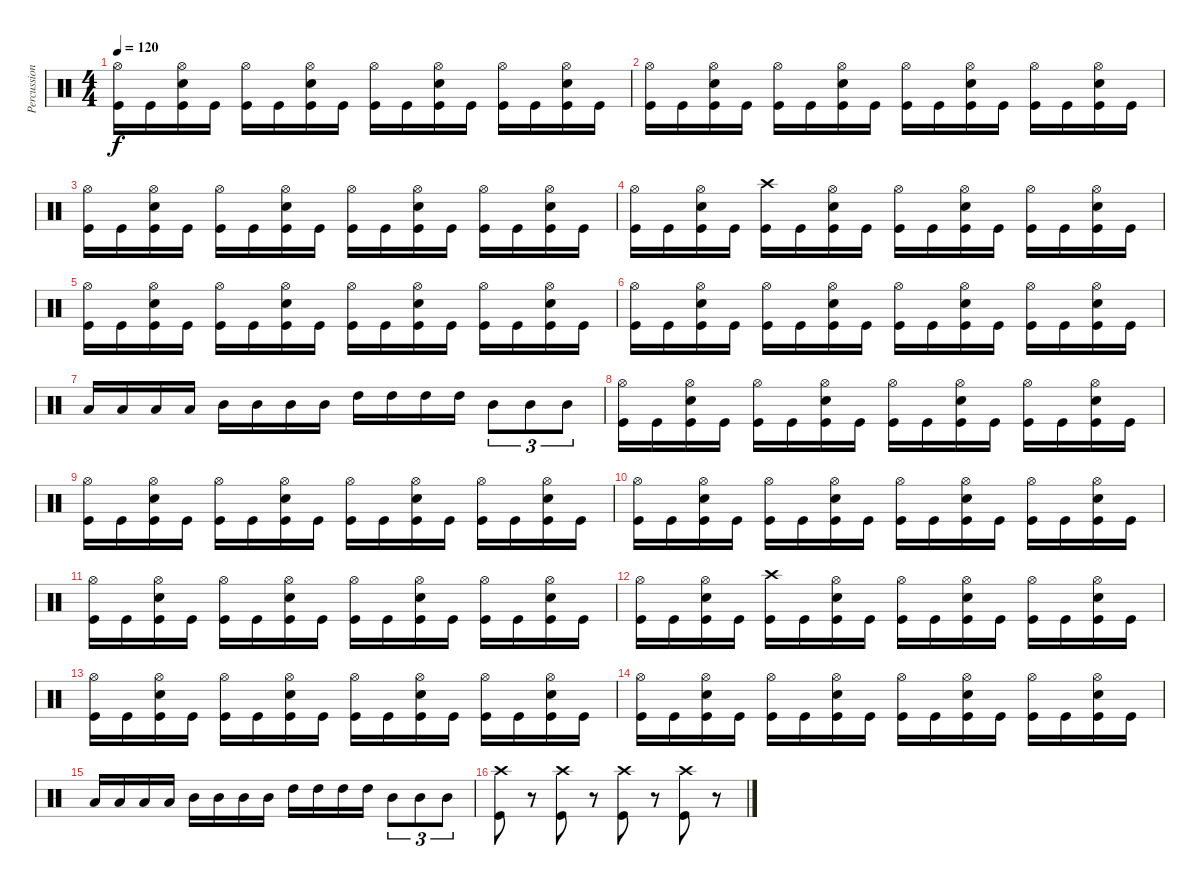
\track ("Percussioni" "Percussion") {instrument percussion}
\staff {score}
\articulation defaults
\ts (4 4)
\tempo 120
\clef neutral
\ks c
("Hi-Hat (open)" "Kick (hit)").16{dy f} "Kick (hit)".16 ("Hi-Hat (open)" "Electric Snare (hit)" "Kick (hit)").16 "Kick (hit)".16 ("Hi-Hat (open)" "Kick (hit)").16 "Kick (hit)".16 ("Hi-Hat (open)" "Electric Snare (hit)" "Kick (hit)").16 "Kick (hit)".16 ("Hi-Hat (open)" "Kick (hit)").16 "Kick (hit)".16 ("Hi-Hat (open)" "Electric Snare (hit)" "Kick (hit)").16 "Kick (hit)".16 ("Hi-Hat (open)" "Kick (hit)").16 "Kick (hit)".16 ("Hi-Hat (open)" "Electric Snare (hit)" "Kick (hit)").16 "Kick (hit)".16 |
("Hi-Hat (open)" "Kick (hit)").16 "Kick (hit)".16 ("Hi-Hat (open)" "Electric Snare (hit)" "Kick (hit)").16 "Kick (hit)".16 ("Hi-Hat (open)" "Kick (hit)").16 "Kick (hit)".16 ("Hi-Hat (open)" "Electric Snare (hit)" "Kick (hit)").16 "Kick (hit)".16 ("Hi-Hat (open)" "Kick (hit)").16 "Kick (hit)".16 ("Hi-Hat (open)" "Electric Snare (hit)" "Kick (hit)").16 "Kick (hit)".16 ("Hi-Hat (open)" "Kick (hit)").16 "Kick (hit)".16 ("Hi-Hat (open)" "Electric Snare (hit)" "Kick (hit)").16 "Kick (hit)".16 |
("Hi-Hat (open)" "Kick (hit)").16 "Kick (hit)".16 ("Hi-Hat (open)" "Electric Snare (hit)" "Kick (hit)").16 "Kick (hit)".16 ("Hi-Hat (open)" "Kick (hit)").16 "Kick (hit)".16 ("Hi-Hat (open)" "Electric Snare (hit)" "Kick (hit)").16 "Kick (hit)".16 ("Hi-Hat (open)" "Kick (hit)").16 "Kick (hit)".16 ("Hi-Hat (open)" "Electric Snare (hit)" "Kick (hit)").16 "Kick (hit)".16 ("Hi-Hat (open)" "Kick (hit)").16 "Kick (hit)".16 ("Hi-Hat (open)" "Electric Snare (hit)" "Kick (hit)").16 "Kick (hit)".16 |
("Hi-Hat (open)" "Kick (hit)").16 "Kick (hit)".16 ("Hi-Hat (open)" "Electric Snare (hit)" "Kick (hit)").16 "Kick (hit)".16 ("Crash high (hit)" "Kick (hit)").16 "Kick (hit)".16 ("Hi-Hat (open)" "Electric Snare (hit)" "Kick (hit)").16 "Kick (hit)".16 ("Hi-Hat (open)" "Kick (hit)").16 "Kick (hit)".16 ("Hi-Hat (open)" "Electric Snare (hit)" "Kick (hit)").16 "Kick (hit)".16 ("Hi-Hat (open)" "Kick (hit)").16 "Kick (hit)".16 ("Hi-Hat (open)" "Electric Snare (hit)" "Kick (hit)").16 "Kick (hit)".16 |
("Hi-Hat (open)" "Kick (hit)").16 "Kick (hit)".16 ("Hi-Hat (open)" "Electric Snare (hit)" "Kick (hit)").16 "Kick (hit)".16 ("Hi-Hat (open)" "Kick (hit)").16 "Kick (hit)".16 ("Hi-Hat (open)" "Electric Snare (hit)" "Kick (hit)").16 "Kick (hit)".16 ("Hi-Hat (open)" "Kick (hit)").16 "Kick (hit)".16 ("Hi-Hat (open)" "Electric Snare (hit)" "Kick (hit)").16 "Kick (hit)".16 ("Hi-Hat (open)" "Kick (hit)").16 "Kick (hit)".16 ("Hi-Hat (open)" "Electric Snare (hit)" "Kick (hit)").16 "Kick (hit)".16 |
("Hi-Hat (open)" "Kick (hit)").16 "Kick (hit)".16 ("Hi-Hat (open)" "Electric Snare (hit)" "Kick (hit)").16 "Kick (hit)".16 ("Hi-Hat (open)" "Kick (hit)").16 "Kick (hit)".16 ("Hi-Hat (open)" "Electric Snare (hit)" "Kick (hit)").16 "Kick (hit)".16 ("Hi-Hat (open)" "Kick (hit)").16 "Kick (hit)".16 ("Hi-Hat (open)" "Electric Snare (hit)" "Kick (hit)").16 "Kick (hit)".16 ("Hi-Hat (open)" "Kick (hit)").16 "Kick (hit)".16 ("Hi-Hat (open)" "Electric Snare (hit)" "Kick (hit)").16 "Kick (hit)".16 |
"Low Tom (hit)".16 "Low Tom (hit)".16 "Low Tom (hit)".16 "Low Tom (hit)".16 "Mid Tom (hit)".16 "Mid Tom (hit)".16 "Mid Tom (hit)".16 "Mid Tom (hit)".16 "High Tom (hit)".16 "High Tom (hit)".16 "High Tom (hit)".16 "High Tom (hit)".16 "Mid Tom (hit)".8{tu (3 2)} "Mid Tom (hit)".8{tu (3 2)} "Mid Tom (hit)".8{tu (3 2)} |
("Hi-Hat (open)" "Kick (hit)").16 "Kick (hit)".16 ("Hi-Hat (open)" "Electric Snare (hit)" "Kick (hit)").16 "Kick (hit)".16 ("Hi-Hat (open)" "Kick (hit)").16 "Kick (hit)".16 ("Hi-Hat (open)" "Electric Snare (hit)" "Kick (hit)").16 "Kick (hit)".16 ("Hi-Hat (open)" "Kick (hit)").16 "Kick (hit)".16 ("Hi-Hat (open)" "Electric Snare (hit)" "Kick (hit)").16 "Kick (hit)".16 ("Hi-Hat (open)" "Kick (hit)").16 "Kick (hit)".16 ("Hi-Hat (open)" "Electric Snare (hit)" "Kick (hit)").16 "Kick (hit)".16 |
("Hi-Hat (open)" "Kick (hit)").16 "Kick (hit)".16 ("Hi-Hat (open)" "Electric Snare (hit)" "Kick (hit)").16 "Kick (hit)".16 ("Hi-Hat (open)" "Kick (hit)").16 "Kick (hit)".16 ("Hi-Hat (open)" "Electric Snare (hit)" "Kick (hit)").16 "Kick (hit)".16 ("Hi-Hat (open)" "Kick (hit)").16 "Kick (hit)".16 ("Hi-Hat (open)" "Electric Snare (hit)" "Kick (hit)").16 "Kick (hit)".16 ("Hi-Hat (open)" "Kick (hit)").16 "Kick (hit)".16 ("Hi-Hat (open)" "Electric Snare (hit)" "Kick (hit)").16 "Kick (hit)".16 |
("Hi-Hat (open)" "Kick (hit)").16 "Kick (hit)".16 ("Hi-Hat (open)" "Electric Snare (hit)" "Kick (hit)").16 "Kick (hit)".16 ("Hi-Hat (open)" "Kick (hit)").16 "Kick (hit)".16 ("Hi-Hat (open)" "Electric Snare (hit)" "Kick (hit)").16 "Kick (hit)".16 ("Hi-Hat (open)" "Kick (hit)").16 "Kick (hit)".16 ("Hi-Hat (open)" "Electric Snare (hit)" "Kick (hit)").16 "Kick (hit)".16 ("Hi-Hat (open)" "Kick (hit)").16 "Kick (hit)".16 ("Hi-Hat (open)" "Electric Snare (hit)" "Kick (hit)").16 "Kick (hit)".16 |
("Hi-Hat (open)" "Kick (hit)").16 "Kick (hit)".16 ("Hi-Hat (open)" "Electric Snare (hit)" "Kick (hit)").16 "Kick (hit)".16 ("Hi-Hat (open)" "Kick (hit)").16 "Kick (hit)".16 ("Hi-Hat (open)" "Electric Snare (hit)" "Kick (hit)").16 "Kick (hit)".16 ("Hi-Hat (open)" "Kick (hit)").16 "Kick (hit)".16 ("Hi-Hat (open)" "Electric Snare (hit)" "Kick (hit)").16 "Kick (hit)".16 ("Hi-Hat (open)" "Kick (hit)").16 "Kick (hit)".16 ("Hi-Hat (open)" "Electric Snare (hit)" "Kick (hit)").16 "Kick (hit)".16 |
("Hi-Hat (open)" "Kick (hit)").16 "Kick (hit)".16 ("Hi-Hat (open)" "Electric Snare (hit)" "Kick (hit)").16 "Kick (hit)".16 ("Crash high (hit)" "Kick (hit)").16 "Kick (hit)".16 ("Hi-Hat (open)" "Electric Snare (hit)" "Kick (hit)").16 "Kick (hit)".16 ("Hi-Hat (open)" "Kick (hit)").16 "Kick (hit)".16 ("Hi-Hat (open)" "Electric Snare (hit)" "Kick (hit)").16 "Kick (hit)".16 ("Hi-Hat (open)" "Kick (hit)").16 "Kick (hit)".16 ("Hi-Hat (open)" "Electric Snare (hit)" "Kick (hit)").16 "Kick (hit)".16 |
("Hi-Hat (open)" "Kick (hit)").16 "Kick (hit)".16 ("Hi-Hat (open)" "Electric Snare (hit)" "Kick (hit)").16 "Kick (hit)".16 ("Hi-Hat (open)" "Kick (hit)").16 "Kick (hit)".16 ("Hi-Hat (open)" "Electric Snare (hit)" "Kick (hit)").16 "Kick (hit)".16 ("Hi-Hat (open)" "Kick (hit)").16 "Kick (hit)".16 ("Hi-Hat (open)" "Electric Snare (hit)" "Kick (hit)").16 "Kick (hit)".16 ("Hi-Hat (open)" "Kick (hit)").16 "Kick (hit)".16 ("Hi-Hat (open)" "Electric Snare (hit)" "Kick (hit)").16 "Kick (hit)".16 |
("Hi-Hat (open)" "Kick (hit)").16 "Kick (hit)".16 ("Hi-Hat (open)" "Electric Snare (hit)" "Kick (hit)").16 "Kick (hit)".16 ("Hi-Hat (open)" "Kick (hit)").16 "Kick (hit)".16 ("Hi-Hat (open)" "Electric Snare (hit)" "Kick (hit)").16 "Kick (hit)".16 ("Hi-Hat (open)" "Kick (hit)").16 "Kick (hit)".16 ("Hi-Hat (open)" "Electric Snare (hit)" "Kick (hit)").16 "Kick (hit)".16 ("Hi-Hat (open)" "Kick (hit)").16 "Kick (hit)".16 ("Hi-Hat (open)" "Electric Snare (hit)" "Kick (hit)").16 "Kick (hit)".16 |
"Low Tom (hit)".16 "Low Tom (hit)".16 "Low Tom (hit)".16 "Low Tom (hit)".16 "Mid Tom (hit)".16 "Mid Tom (hit)".16 "Mid Tom (hit)".16 "Mid Tom (hit)".16 "High Tom (hit)".16 "High Tom (hit)".16 "High Tom (hit)".16 "High Tom (hit)".16 "Mid Tom (hit)".8{tu (3 2)} "Mid Tom (hit)".8{tu (3 2)} "Mid Tom (hit)".8{tu (3 2)} |
("Crash high (hit)" "Kick (hit)").8{volume 16} r.8{volume 0} ("Crash high (hit)" "Kick (hit)").8{volume 16} r.8{volume 0} ("Crash high (hit)" "Kick (hit)").8{volume 16} r.8{volume 0} ("Crash high (hit)" "Kick (hit)").8{volume 16} r.8{volume 0}
